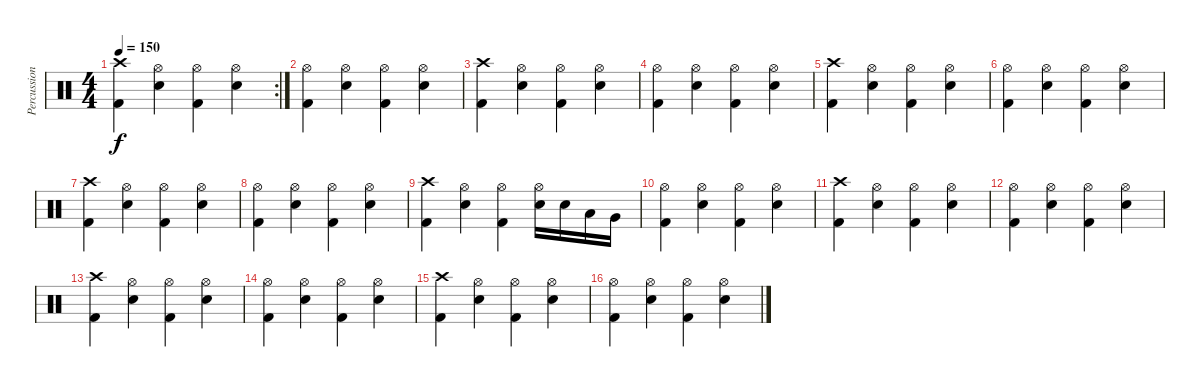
\track ("Percussion" "Percussion") {instrument percussion}
\staff {score}
\articulation defaults
\rc 2
\ts (4 4)
\tempo 150
\clef neutral
\ks c
("Crash high (hit)" "Kick (hit) 2").4{dy f} ("Hi-Hat (open)" "Electric Snare (hit)").4 ("Hi-Hat (open)" "Kick (hit) 2").4 ("Hi-Hat (open)" "Electric Snare (hit)").4 |
("Hi-Hat (open)" "Kick (hit) 2").4 ("Hi-Hat (open)" "Electric Snare (hit)").4 ("Hi-Hat (open)" "Kick (hit) 2").4 ("Hi-Hat (open)" "Electric Snare (hit)").4 |
("Crash high (hit)" "Kick (hit) 2").4 ("Hi-Hat (open)" "Electric Snare (hit)").4 ("Hi-Hat (open)" "Kick (hit) 2").4 ("Hi-Hat (open)" "Electric Snare (hit)").4 |
("Hi-Hat (open)" "Kick (hit) 2").4 ("Hi-Hat (open)" "Electric Snare (hit)").4 ("Hi-Hat (open)" "Kick (hit) 2").4 ("Hi-Hat (open)" "Electric Snare (hit)").4 |
("Crash high (hit)" "Kick (hit) 2").4 ("Hi-Hat (open)" "Electric Snare (hit)").4 ("Hi-Hat (open)" "Kick (hit) 2").4 ("Hi-Hat (open)" "Electric Snare (hit)").4 |
("Hi-Hat (open)" "Kick (hit) 2").4 ("Hi-Hat (open)" "Electric Snare (hit)").4 ("Hi-Hat (open)" "Kick (hit) 2").4 ("Hi-Hat (open)" "Electric Snare (hit)").4 |
("Crash high (hit)" "Kick (hit) 2").4 ("Hi-Hat (open)" "Electric Snare (hit)").4 ("Hi-Hat (open)" "Kick (hit) 2").4 ("Hi-Hat (open)" "Electric Snare (hit)").4 |
("Hi-Hat (open)" "Kick (hit) 2").4 ("Hi-Hat (open)" "Electric Snare (hit)").4 ("Hi-Hat (open)" "Kick (hit) 2").4 ("Hi-Hat (open)" "Electric Snare (hit)").4 |
("Crash high (hit)" "Kick (hit) 2").4 ("Hi-Hat (open)" "Electric Snare (hit)").4 ("Hi-Hat (open)" "Kick (hit) 2").4 ("Hi-Hat (open)" "Electric Snare (hit)").16 "Electric Snare (hit)".16 "Low Tom (hit)".16 "Very Low Tom (hit)".16 |
("Hi-Hat (open)" "Kick (hit) 2").4 ("Hi-Hat (open)" "Electric Snare (hit)").4 ("Hi-Hat (open)" "Kick (hit) 2").4 ("Hi-Hat (open)" "Electric Snare (hit)").4 |
("Crash high (hit)" "Kick (hit) 2").4 ("Hi-Hat (open)" "Electric Snare (hit)").4 ("Hi-Hat (open)" "Kick (hit) 2").4 ("Hi-Hat (open)" "Electric Snare (hit)").4 |
("Hi-Hat (open)" "Kick (hit) 2").4 ("Hi-Hat (open)" "Electric Snare (hit)").4 ("Hi-Hat (open)" "Kick (hit) 2").4 ("Hi-Hat (open)" "Electric Snare (hit)").4 |
("Crash high (hit)" "Kick (hit) 2").4 ("Hi-Hat (open)" "Electric Snare (hit)").4 ("Hi-Hat (open)" "Kick (hit) 2").4 ("Hi-Hat (open)" "Electric Snare (hit)").4 |
("Hi-Hat (open)" "Kick (hit) 2").4 ("Hi-Hat (open)" "Electric Snare (hit)").4 ("Hi-Hat (open)" "Kick (hit) 2").4 ("Hi-Hat (open)" "Electric Snare (hit)").4 |
("Crash high (hit)" "Kick (hit) 2").4 ("Hi-Hat (open)" "Electric Snare (hit)").4 ("Hi-Hat (open)" "Kick (hit) 2").4 ("Hi-Hat (open)" "Electric Snare (hit)").4 |
("Hi-Hat (open)" "Kick (hit) 2").4 ("Hi-Hat (open)" "Electric Snare (hit)").4 ("Hi-Hat (open)" "Kick (hit) 2").4 ("Hi-Hat (open)" "Electric Snare (hit)").4
